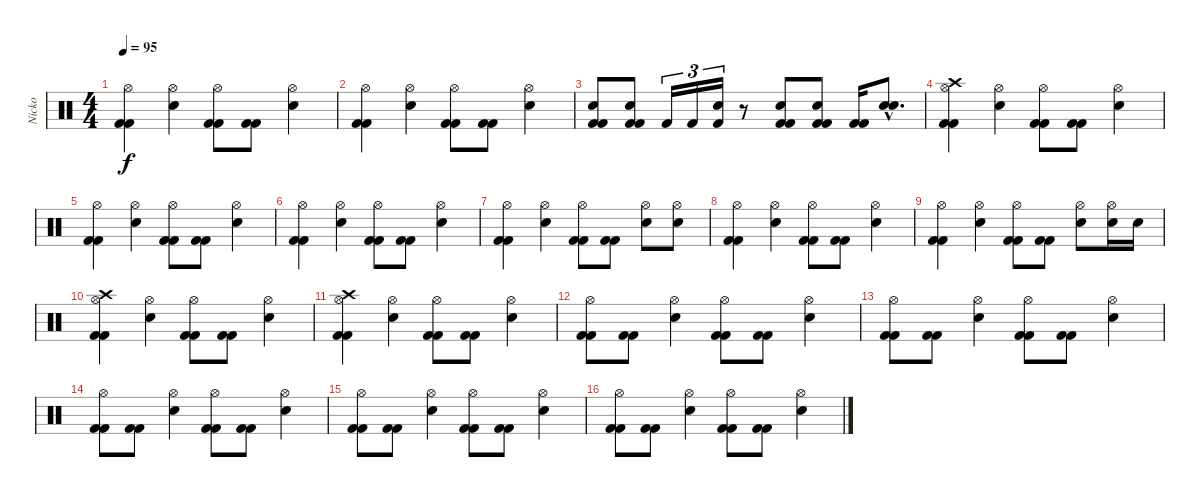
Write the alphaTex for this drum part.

\track ("Nicko " "Nicko ") {instrument percussion}
\staff {score}
\articulation defaults
\ts (4 4)
\tempo 95
\clef neutral
\ks c
("Hi-Hat (open)" "Kick (hit) 2" "Kick (hit) 2").4{dy f} ("Hi-Hat (open)" "Snare (hit) 2").4 ("Hi-Hat (open)" "Kick (hit) 2" "Kick (hit) 2").8 ("Kick (hit) 2" "Kick (hit) 2").8 ("Hi-Hat (open)" "Snare (hit) 2").4 |
("Hi-Hat (open)" "Kick (hit) 2" "Kick (hit) 2").4 ("Hi-Hat (open)" "Snare (hit) 2").4 ("Hi-Hat (open)" "Kick (hit) 2" "Kick (hit) 2").8 ("Kick (hit) 2" "Kick (hit) 2").8 ("Hi-Hat (open)" "Snare (hit) 2").4 |
("Snare (hit) 2" "Kick (hit) 2" "Kick (hit) 2").8 ("Snare (hit) 2" "Kick (hit) 2" "Kick (hit) 2").8 "Kick (hit) 2".16{tu (3 2)} "Kick (hit) 2".16{tu (3 2)} ("Snare (hit) 2" "Kick (hit) 2").16{tu (3 2)} r.8 ("Snare (hit) 2" "Kick (hit) 2" "Kick (hit) 2").8 ("Snare (hit) 2" "Kick (hit) 2" "Kick (hit) 2").8 ("Kick (hit) 2" "Kick (hit) 2").16 ("Snare (hit) 2"{hac} "Snare (hit) 2"{hac}).8{d} |
("Hi-Hat (open)" "Kick (hit) 2" "Kick (hit) 2" "Crash high (hit)").4 ("Hi-Hat (open)" "Snare (hit) 2").4 ("Hi-Hat (open)" "Kick (hit) 2" "Kick (hit) 2").8 ("Kick (hit) 2" "Kick (hit) 2").8 ("Hi-Hat (open)" "Snare (hit) 2").4 |
("Hi-Hat (open)" "Kick (hit) 2" "Kick (hit) 2").4 ("Hi-Hat (open)" "Snare (hit) 2").4 ("Hi-Hat (open)" "Kick (hit) 2" "Kick (hit) 2").8 ("Kick (hit) 2" "Kick (hit) 2").8 ("Hi-Hat (open)" "Snare (hit) 2").4 |
("Hi-Hat (open)" "Kick (hit) 2" "Kick (hit) 2").4 ("Hi-Hat (open)" "Snare (hit) 2").4 ("Hi-Hat (open)" "Kick (hit) 2" "Kick (hit) 2").8 ("Kick (hit) 2" "Kick (hit) 2").8 ("Hi-Hat (open)" "Snare (hit) 2").4 |
("Hi-Hat (open)" "Kick (hit) 2" "Kick (hit) 2").4 ("Hi-Hat (open)" "Snare (hit) 2").4 ("Hi-Hat (open)" "Kick (hit) 2" "Kick (hit) 2").8 ("Kick (hit) 2" "Kick (hit) 2").8 ("Hi-Hat (open)" "Snare (hit) 2").8 ("Hi-Hat (open)" "Snare (hit) 2").8 |
("Hi-Hat (open)" "Kick (hit) 2" "Kick (hit) 2").4 ("Hi-Hat (open)" "Snare (hit) 2").4 ("Hi-Hat (open)" "Kick (hit) 2" "Kick (hit) 2").8 ("Kick (hit) 2" "Kick (hit) 2").8 ("Hi-Hat (open)" "Snare (hit) 2").4 |
("Hi-Hat (open)" "Kick (hit) 2" "Kick (hit) 2").4 ("Hi-Hat (open)" "Snare (hit) 2").4 ("Hi-Hat (open)" "Kick (hit) 2" "Kick (hit) 2").8 ("Kick (hit) 2" "Kick (hit) 2").8 ("Hi-Hat (open)" "Snare (hit) 2").8 ("Hi-Hat (open)" "Snare (hit) 2").16 "Snare (hit) 2".16 |
("Hi-Hat (open)" "Kick (hit) 2" "Kick (hit) 2" "Crash high (hit)").4 ("Hi-Hat (open)" "Snare (hit) 2").4 ("Hi-Hat (open)" "Kick (hit) 2" "Kick (hit) 2").8 ("Kick (hit) 2" "Kick (hit) 2").8 ("Hi-Hat (open)" "Snare (hit) 2").4 |
("Hi-Hat (open)" "Kick (hit) 2" "Kick (hit) 2" "Crash high (hit)").4 ("Hi-Hat (open)" "Snare (hit) 2").4 ("Hi-Hat (open)" "Kick (hit) 2" "Kick (hit) 2").8 ("Kick (hit) 2" "Kick (hit) 2").8 ("Hi-Hat (open)" "Snare (hit) 2").4 |
("Hi-Hat (open)" "Kick (hit) 2" "Kick (hit) 2").8 ("Kick (hit) 2" "Kick (hit) 2").8 ("Hi-Hat (open)" "Snare (hit) 2").4 ("Hi-Hat (open)" "Kick (hit) 2" "Kick (hit) 2").8 ("Kick (hit) 2" "Kick (hit) 2").8 ("Hi-Hat (open)" "Snare (hit) 2").4 |
("Hi-Hat (open)" "Kick (hit) 2" "Kick (hit) 2").8 ("Kick (hit) 2" "Kick (hit) 2").8 ("Hi-Hat (open)" "Snare (hit) 2").4 ("Hi-Hat (open)" "Kick (hit) 2" "Kick (hit) 2").8 ("Kick (hit) 2" "Kick (hit) 2").8 ("Hi-Hat (open)" "Snare (hit) 2").4 |
("Hi-Hat (open)" "Kick (hit) 2" "Kick (hit) 2").8 ("Kick (hit) 2" "Kick (hit) 2").8 ("Hi-Hat (open)" "Snare (hit) 2").4 ("Hi-Hat (open)" "Kick (hit) 2" "Kick (hit) 2").8 ("Kick (hit) 2" "Kick (hit) 2").8 ("Hi-Hat (open)" "Snare (hit) 2").4 |
("Hi-Hat (open)" "Kick (hit) 2" "Kick (hit) 2").8 ("Kick (hit) 2" "Kick (hit) 2").8 ("Hi-Hat (open)" "Snare (hit) 2").4 ("Hi-Hat (open)" "Kick (hit) 2" "Kick (hit) 2").8 ("Kick (hit) 2" "Kick (hit) 2").8 ("Hi-Hat (open)" "Snare (hit) 2").4 |
("Hi-Hat (open)" "Kick (hit) 2" "Kick (hit) 2").8 ("Kick (hit) 2" "Kick (hit) 2").8 ("Hi-Hat (open)" "Snare (hit) 2").4 ("Hi-Hat (open)" "Kick (hit) 2" "Kick (hit) 2").8 ("Kick (hit) 2" "Kick (hit) 2").8 ("Hi-Hat (open)" "Snare (hit) 2").4
